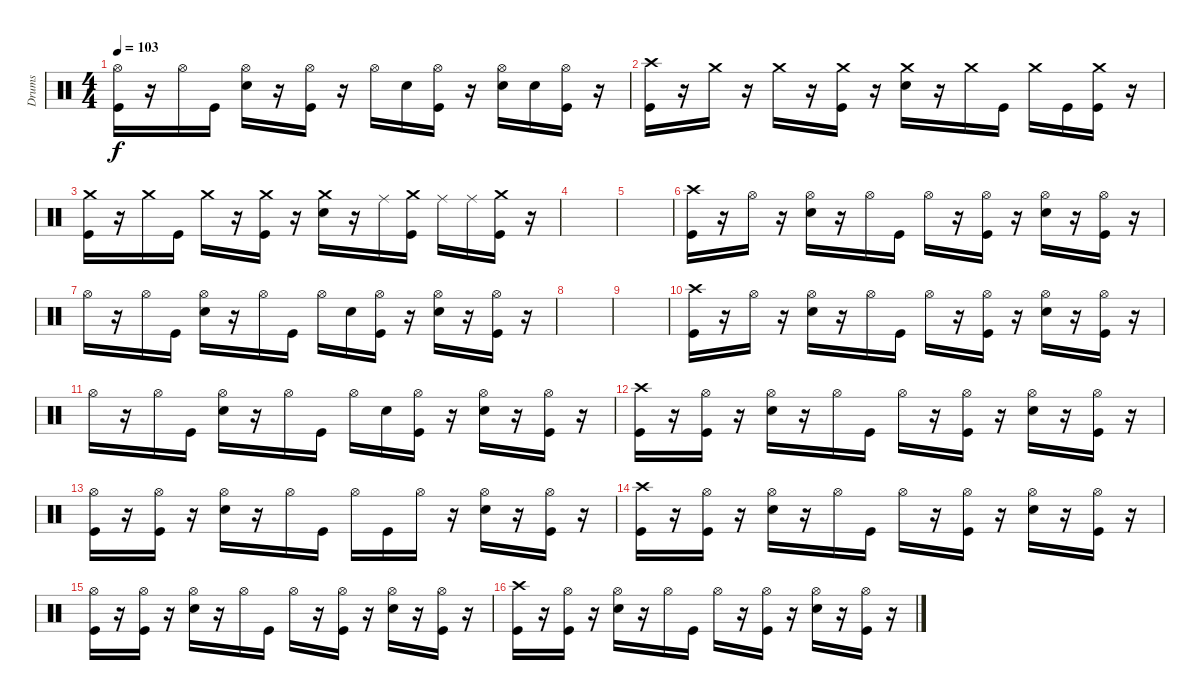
\track ("Drums" "Drums") {instrument percussion}
\staff {score}
\articulation defaults
\ts (4 4)
\tempo 103
\clef neutral
\ks c
("Hi-Hat (open)" "Kick (hit)").16{dy f} r.16 "Hi-Hat (open)".16 "Kick (hit)".16 ("Hi-Hat (open)" "Electric Snare (hit)").16 r.16 ("Hi-Hat (open)" "Kick (hit)").16 r.16 "Hi-Hat (open)".16 "Electric Snare (hit)".16 ("Hi-Hat (open)" "Kick (hit)").16 r.16 ("Hi-Hat (open)" "Electric Snare (hit)").16 "Electric Snare (hit)".16 ("Hi-Hat (open)" "Kick (hit)").16 r.16 |
("Crash high (hit)" "Kick (hit)").16 r.16 "Crash medium (hit)".16 r.16 "Crash medium (hit)".16 r.16 ("Crash medium (hit)" "Kick (hit)").16 r.16 ("Crash medium (hit)" "Electric Snare (hit)").16 r.16 "Crash medium (hit)".16 "Kick (hit)".16 "Crash medium (hit)".16 "Kick (hit)".16 ("Crash medium (hit)" "Kick (hit)").16 r.16 |
("Crash medium (hit)" "Kick (hit)").16 r.16 "Crash medium (hit)".16 "Kick (hit)".16 "Crash medium (hit)".16 r.16 ("Crash medium (hit)" "Kick (hit)").16 r.16 ("Crash medium (hit)" "Electric Snare (hit)").16 r.16 "Ride (middle)".16 ("Crash medium (hit)" "Kick (hit)").16 "Ride (middle)".16 "Ride (middle)".16 ("Crash medium (hit)" "Kick (hit)").16 r.16 |
|
|
("Crash high (hit)" "Kick (hit)").16 r.16 "Hi-Hat (open)".16 r.16 ("Hi-Hat (open)" "Electric Snare (hit)").16 r.16 "Hi-Hat (open)".16 "Kick (hit)".16 "Hi-Hat (open)".16 r.16 ("Hi-Hat (open)" "Kick (hit)").16 r.16 ("Hi-Hat (open)" "Electric Snare (hit)").16 r.16 ("Hi-Hat (open)" "Kick (hit)").16 r.16 |
"Hi-Hat (open)".16 r.16 "Hi-Hat (open)".16 "Kick (hit)".16 ("Hi-Hat (open)" "Electric Snare (hit)").16 r.16 "Hi-Hat (open)".16 "Kick (hit)".16 "Hi-Hat (open)".16 "Electric Snare (hit)".16 ("Hi-Hat (open)" "Kick (hit)").16 r.16 ("Hi-Hat (open)" "Electric Snare (hit)").16 r.16 ("Hi-Hat (open)" "Kick (hit)").16 r.16 |
|
|
("Crash high (hit)" "Kick (hit)").16 r.16 "Hi-Hat (open)".16 r.16 ("Hi-Hat (open)" "Electric Snare (hit)").16 r.16 "Hi-Hat (open)".16 "Kick (hit)".16 "Hi-Hat (open)".16 r.16 ("Hi-Hat (open)" "Kick (hit)").16 r.16 ("Hi-Hat (open)" "Electric Snare (hit)").16 r.16 ("Hi-Hat (open)" "Kick (hit)").16 r.16 |
"Hi-Hat (open)".16 r.16 "Hi-Hat (open)".16 "Kick (hit)".16 ("Hi-Hat (open)" "Electric Snare (hit)").16 r.16 "Hi-Hat (open)".16 "Kick (hit)".16 "Hi-Hat (open)".16 "Electric Snare (hit)".16 ("Hi-Hat (open)" "Kick (hit)").16 r.16 ("Hi-Hat (open)" "Electric Snare (hit)").16 r.16 ("Hi-Hat (open)" "Kick (hit)").16 r.16 |
("Crash high (hit)" "Kick (hit)").16 r.16 ("Hi-Hat (open)" "Kick (hit)").16 r.16 ("Hi-Hat (open)" "Electric Snare (hit)").16 r.16 "Hi-Hat (open)".16 "Kick (hit)".16 "Hi-Hat (open)".16 r.16 ("Hi-Hat (open)" "Kick (hit)").16 r.16 ("Hi-Hat (open)" "Electric Snare (hit)").16 r.16 ("Hi-Hat (open)" "Kick (hit)").16 r.16 |
("Hi-Hat (open)" "Kick (hit)").16 r.16 ("Hi-Hat (open)" "Kick (hit)").16 r.16 ("Hi-Hat (open)" "Electric Snare (hit)").16 r.16 "Hi-Hat (open)".16 "Kick (hit)".16 "Hi-Hat (open)".16 "Kick (hit)".16 "Hi-Hat (open)".16 r.16 ("Hi-Hat (open)" "Electric Snare (hit)").16 r.16 ("Hi-Hat (open)" "Kick (hit)").16 r.16 |
("Crash high (hit)" "Kick (hit)").16 r.16 ("Hi-Hat (open)" "Kick (hit)").16 r.16 ("Hi-Hat (open)" "Electric Snare (hit)").16 r.16 "Hi-Hat (open)".16 "Kick (hit)".16 "Hi-Hat (open)".16 r.16 ("Hi-Hat (open)" "Kick (hit)").16 r.16 ("Hi-Hat (open)" "Electric Snare (hit)").16 r.16 ("Hi-Hat (open)" "Kick (hit)").16 r.16 |
("Hi-Hat (open)" "Kick (hit)").16 r.16 ("Hi-Hat (open)" "Kick (hit)").16 r.16 ("Hi-Hat (open)" "Electric Snare (hit)").16 r.16 "Hi-Hat (open)".16 "Kick (hit)".16 "Hi-Hat (open)".16 r.16 ("Hi-Hat (open)" "Kick (hit)").16 r.16 ("Hi-Hat (open)" "Electric Snare (hit)").16 r.16 ("Hi-Hat (open)" "Kick (hit)").16 r.16 |
("Crash high (hit)" "Kick (hit)").16 r.16 ("Hi-Hat (open)" "Kick (hit)").16 r.16 ("Hi-Hat (open)" "Electric Snare (hit)").16 r.16 "Hi-Hat (open)".16 "Kick (hit)".16 "Hi-Hat (open)".16 r.16 ("Hi-Hat (open)" "Kick (hit)").16 r.16 ("Hi-Hat (open)" "Electric Snare (hit)").16 r.16 ("Hi-Hat (open)" "Kick (hit)").16 r.16
